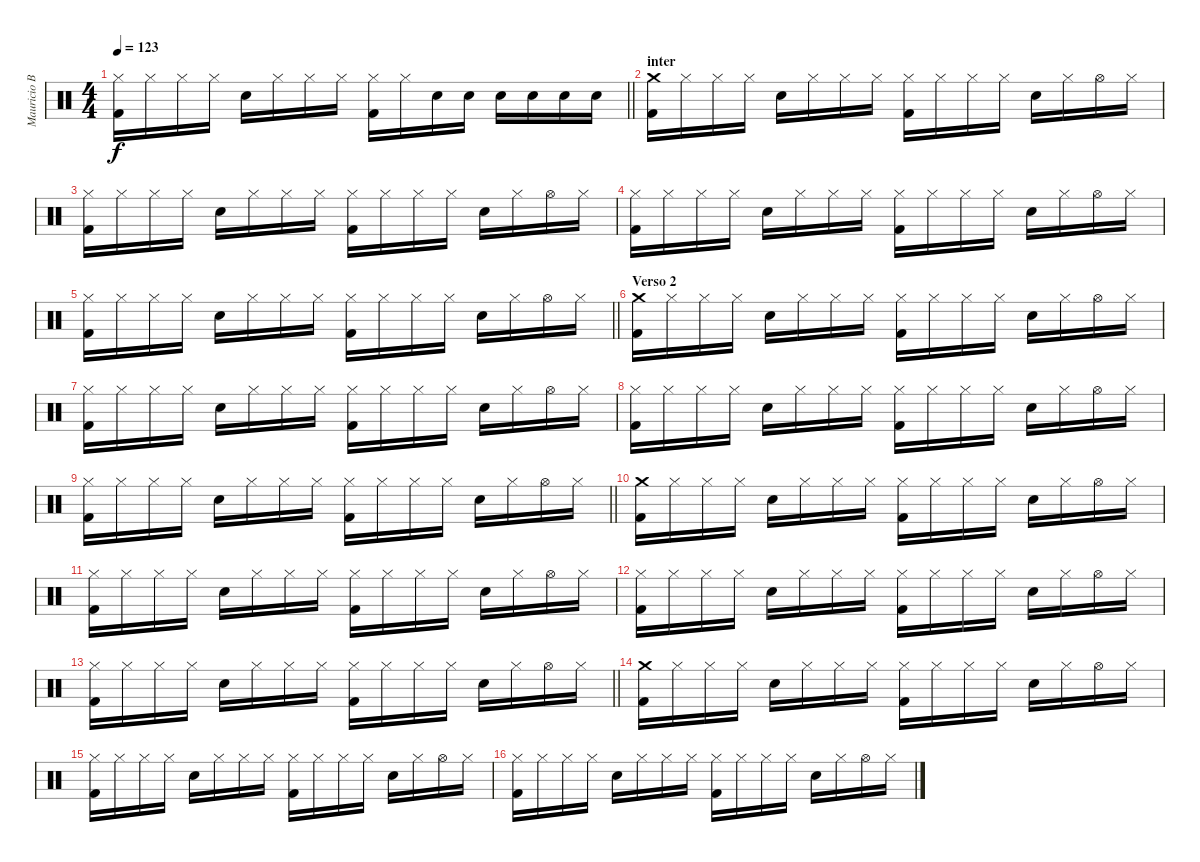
\track ("Mauricio Basualto" "Mauricio B") {instrument percussion}
\staff {score}
\articulation defaults
\ts (4 4)
\tempo 123
\clef neutral
\barLineRight lightlight
\ks c
("Hi-Hat (closed)" "Kick (hit) 2").16{dy f} "Hi-Hat (closed)".16 "Hi-Hat (closed)".16 "Hi-Hat (closed)".16 "Electric Snare (hit)".16 "Hi-Hat (closed)".16 "Hi-Hat (closed)".16 "Hi-Hat (closed)".16 ("Hi-Hat (closed)" "Kick (hit) 2").16 "Hi-Hat (closed)".16 "Electric Snare (hit)".16 "Electric Snare (hit)".16 "Electric Snare (hit)".16 "Electric Snare (hit)".16 "Electric Snare (hit)".16 "Electric Snare (hit)".16 |
\section ("" "inter")
("Crash medium (hit)" "Kick (hit) 2").16 "Hi-Hat (closed)".16 "Hi-Hat (closed)".16 "Hi-Hat (closed)".16 "Electric Snare (hit)".16 "Hi-Hat (closed)".16 "Hi-Hat (closed)".16 "Hi-Hat (closed)".16 ("Hi-Hat (closed)" "Kick (hit) 2").16 "Hi-Hat (closed)".16 "Hi-Hat (closed)".16 "Hi-Hat (closed)".16 "Electric Snare (hit)".16 "Hi-Hat (closed)".16 "Hi-Hat (open)".16 "Hi-Hat (closed)".16 |
("Hi-Hat (closed)" "Kick (hit) 2").16 "Hi-Hat (closed)".16 "Hi-Hat (closed)".16 "Hi-Hat (closed)".16 "Electric Snare (hit)".16 "Hi-Hat (closed)".16 "Hi-Hat (closed)".16 "Hi-Hat (closed)".16 ("Hi-Hat (closed)" "Kick (hit) 2").16 "Hi-Hat (closed)".16 "Hi-Hat (closed)".16 "Hi-Hat (closed)".16 "Electric Snare (hit)".16 "Hi-Hat (closed)".16 "Hi-Hat (open)".16 "Hi-Hat (closed)".16 |
("Hi-Hat (closed)" "Kick (hit) 2").16 "Hi-Hat (closed)".16 "Hi-Hat (closed)".16 "Hi-Hat (closed)".16 "Electric Snare (hit)".16 "Hi-Hat (closed)".16 "Hi-Hat (closed)".16 "Hi-Hat (closed)".16 ("Hi-Hat (closed)" "Kick (hit) 2").16 "Hi-Hat (closed)".16 "Hi-Hat (closed)".16 "Hi-Hat (closed)".16 "Electric Snare (hit)".16 "Hi-Hat (closed)".16 "Hi-Hat (open)".16 "Hi-Hat (closed)".16 |
\barLineRight lightlight
("Hi-Hat (closed)" "Kick (hit) 2").16 "Hi-Hat (closed)".16 "Hi-Hat (closed)".16 "Hi-Hat (closed)".16 "Electric Snare (hit)".16 "Hi-Hat (closed)".16 "Hi-Hat (closed)".16 "Hi-Hat (closed)".16 ("Hi-Hat (closed)" "Kick (hit) 2").16 "Hi-Hat (closed)".16 "Hi-Hat (closed)".16 "Hi-Hat (closed)".16 "Electric Snare (hit)".16 "Hi-Hat (closed)".16 "Hi-Hat (open)".16 "Hi-Hat (closed)".16 |
\section ("" "Verso 2")
("Crash medium (hit)" "Kick (hit) 2").16 "Hi-Hat (closed)".16 "Hi-Hat (closed)".16 "Hi-Hat (closed)".16 "Electric Snare (hit)".16 "Hi-Hat (closed)".16 "Hi-Hat (closed)".16 "Hi-Hat (closed)".16 ("Hi-Hat (closed)" "Kick (hit) 2").16 "Hi-Hat (closed)".16 "Hi-Hat (closed)".16 "Hi-Hat (closed)".16 "Electric Snare (hit)".16 "Hi-Hat (closed)".16 "Hi-Hat (open)".16 "Hi-Hat (closed)".16 |
("Hi-Hat (closed)" "Kick (hit) 2").16 "Hi-Hat (closed)".16 "Hi-Hat (closed)".16 "Hi-Hat (closed)".16 "Electric Snare (hit)".16 "Hi-Hat (closed)".16 "Hi-Hat (closed)".16 "Hi-Hat (closed)".16 ("Hi-Hat (closed)" "Kick (hit) 2").16 "Hi-Hat (closed)".16 "Hi-Hat (closed)".16 "Hi-Hat (closed)".16 "Electric Snare (hit)".16 "Hi-Hat (closed)".16 "Hi-Hat (open)".16 "Hi-Hat (closed)".16 |
("Hi-Hat (closed)" "Kick (hit) 2").16 "Hi-Hat (closed)".16 "Hi-Hat (closed)".16 "Hi-Hat (closed)".16 "Electric Snare (hit)".16 "Hi-Hat (closed)".16 "Hi-Hat (closed)".16 "Hi-Hat (closed)".16 ("Hi-Hat (closed)" "Kick (hit) 2").16 "Hi-Hat (closed)".16 "Hi-Hat (closed)".16 "Hi-Hat (closed)".16 "Electric Snare (hit)".16 "Hi-Hat (closed)".16 "Hi-Hat (open)".16 "Hi-Hat (closed)".16 |
\barLineRight lightlight
("Hi-Hat (closed)" "Kick (hit) 2").16 "Hi-Hat (closed)".16 "Hi-Hat (closed)".16 "Hi-Hat (closed)".16 "Electric Snare (hit)".16 "Hi-Hat (closed)".16 "Hi-Hat (closed)".16 "Hi-Hat (closed)".16 ("Hi-Hat (closed)" "Kick (hit) 2").16 "Hi-Hat (closed)".16 "Hi-Hat (closed)".16 "Hi-Hat (closed)".16 "Electric Snare (hit)".16 "Hi-Hat (closed)".16 "Hi-Hat (open)".16 "Hi-Hat (closed)".16 |
("Crash medium (hit)" "Kick (hit) 2").16 "Hi-Hat (closed)".16 "Hi-Hat (closed)".16 "Hi-Hat (closed)".16 "Electric Snare (hit)".16 "Hi-Hat (closed)".16 "Hi-Hat (closed)".16 "Hi-Hat (closed)".16 ("Hi-Hat (closed)" "Kick (hit) 2").16 "Hi-Hat (closed)".16 "Hi-Hat (closed)".16 "Hi-Hat (closed)".16 "Electric Snare (hit)".16 "Hi-Hat (closed)".16 "Hi-Hat (open)".16 "Hi-Hat (closed)".16 |
("Hi-Hat (closed)" "Kick (hit) 2").16 "Hi-Hat (closed)".16 "Hi-Hat (closed)".16 "Hi-Hat (closed)".16 "Electric Snare (hit)".16 "Hi-Hat (closed)".16 "Hi-Hat (closed)".16 "Hi-Hat (closed)".16 ("Hi-Hat (closed)" "Kick (hit) 2").16 "Hi-Hat (closed)".16 "Hi-Hat (closed)".16 "Hi-Hat (closed)".16 "Electric Snare (hit)".16 "Hi-Hat (closed)".16 "Hi-Hat (open)".16 "Hi-Hat (closed)".16 |
("Hi-Hat (closed)" "Kick (hit) 2").16 "Hi-Hat (closed)".16 "Hi-Hat (closed)".16 "Hi-Hat (closed)".16 "Electric Snare (hit)".16 "Hi-Hat (closed)".16 "Hi-Hat (closed)".16 "Hi-Hat (closed)".16 ("Hi-Hat (closed)" "Kick (hit) 2").16 "Hi-Hat (closed)".16 "Hi-Hat (closed)".16 "Hi-Hat (closed)".16 "Electric Snare (hit)".16 "Hi-Hat (closed)".16 "Hi-Hat (open)".16 "Hi-Hat (closed)".16 |
\barLineRight lightlight
("Hi-Hat (closed)" "Kick (hit) 2").16 "Hi-Hat (closed)".16 "Hi-Hat (closed)".16 "Hi-Hat (closed)".16 "Electric Snare (hit)".16 "Hi-Hat (closed)".16 "Hi-Hat (closed)".16 "Hi-Hat (closed)".16 ("Hi-Hat (closed)" "Kick (hit) 2").16 "Hi-Hat (closed)".16 "Hi-Hat (closed)".16 "Hi-Hat (closed)".16 "Electric Snare (hit)".16 "Hi-Hat (closed)".16 "Hi-Hat (open)".16 "Hi-Hat (closed)".16 |
("Crash medium (hit)" "Kick (hit) 2").16 "Hi-Hat (closed)".16 "Hi-Hat (closed)".16 "Hi-Hat (closed)".16 "Electric Snare (hit)".16 "Hi-Hat (closed)".16 "Hi-Hat (closed)".16 "Hi-Hat (closed)".16 ("Hi-Hat (closed)" "Kick (hit) 2").16 "Hi-Hat (closed)".16 "Hi-Hat (closed)".16 "Hi-Hat (closed)".16 "Electric Snare (hit)".16 "Hi-Hat (closed)".16 "Hi-Hat (open)".16 "Hi-Hat (closed)".16 |
("Hi-Hat (closed)" "Kick (hit) 2").16 "Hi-Hat (closed)".16 "Hi-Hat (closed)".16 "Hi-Hat (closed)".16 "Electric Snare (hit)".16 "Hi-Hat (closed)".16 "Hi-Hat (closed)".16 "Hi-Hat (closed)".16 ("Hi-Hat (closed)" "Kick (hit) 2").16 "Hi-Hat (closed)".16 "Hi-Hat (closed)".16 "Hi-Hat (closed)".16 "Electric Snare (hit)".16 "Hi-Hat (closed)".16 "Hi-Hat (open)".16 "Hi-Hat (closed)".16 |
("Hi-Hat (closed)" "Kick (hit) 2").16 "Hi-Hat (closed)".16 "Hi-Hat (closed)".16 "Hi-Hat (closed)".16 "Electric Snare (hit)".16 "Hi-Hat (closed)".16 "Hi-Hat (closed)".16 "Hi-Hat (closed)".16 ("Hi-Hat (closed)" "Kick (hit) 2").16 "Hi-Hat (closed)".16 "Hi-Hat (closed)".16 "Hi-Hat (closed)".16 "Electric Snare (hit)".16 "Hi-Hat (closed)".16 "Hi-Hat (open)".16 "Hi-Hat (closed)".16
